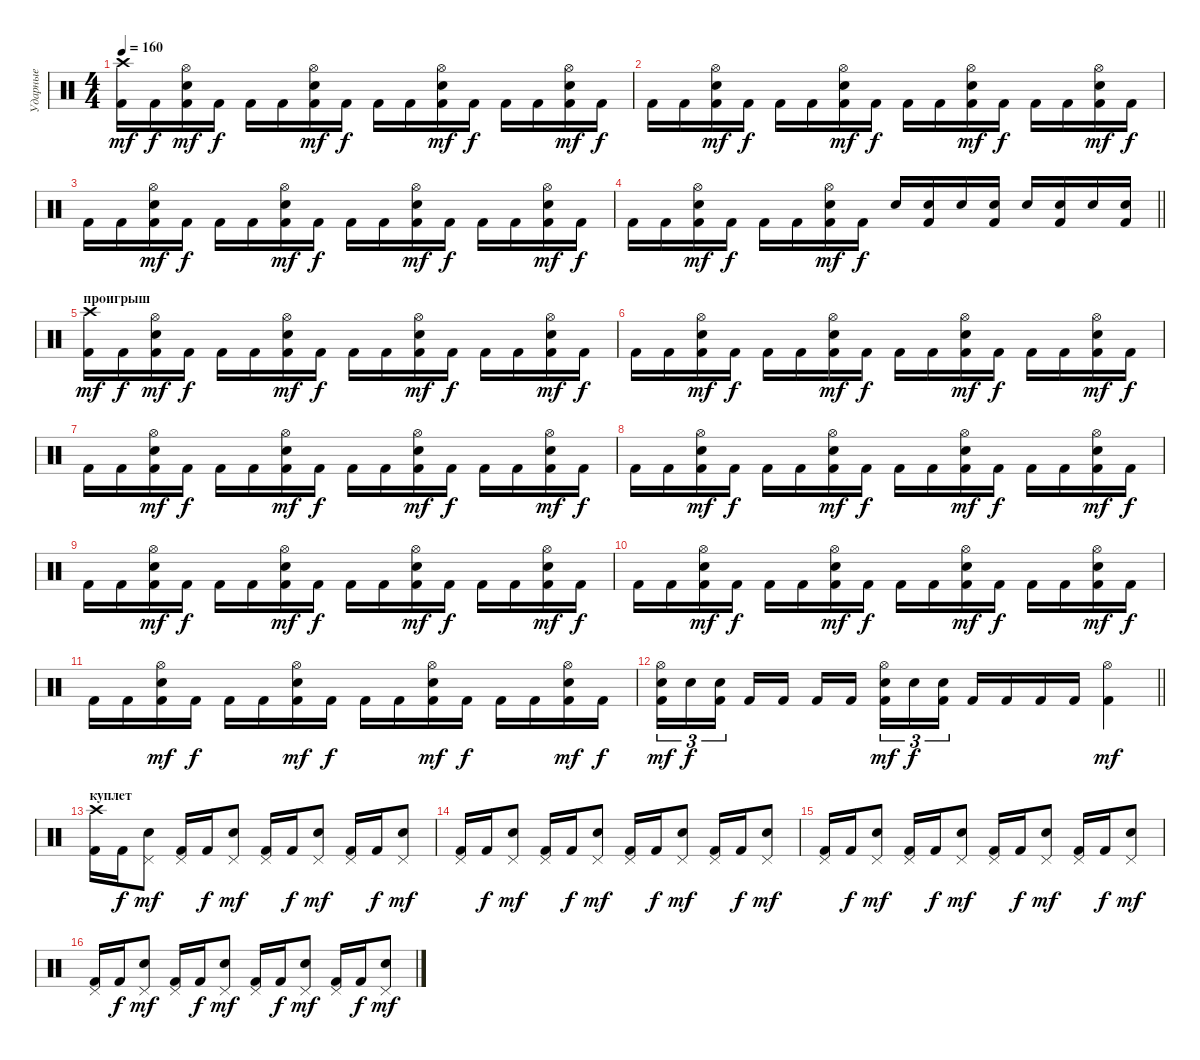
\track ("Ударные" "Ударные") {instrument percussion}
\staff {score}
\articulation defaults
\ts (4 4)
\tempo 160
\clef neutral
\ks c
("Kick (hit) 2" "Crash high (hit)").16{dy mf} "Kick (hit) 2".16{dy f} ("Kick (hit) 2" "Electric Snare (hit)" "Hi-Hat (open)").16{dy mf} "Kick (hit) 2".16{dy f} "Kick (hit) 2".16 "Kick (hit) 2".16 ("Kick (hit) 2" "Electric Snare (hit)" "Hi-Hat (open)").16{dy mf} "Kick (hit) 2".16{dy f} "Kick (hit) 2".16 "Kick (hit) 2".16 ("Kick (hit) 2" "Electric Snare (hit)" "Hi-Hat (open)").16{dy mf} "Kick (hit) 2".16{dy f} "Kick (hit) 2".16 "Kick (hit) 2".16 ("Kick (hit) 2" "Electric Snare (hit)" "Hi-Hat (open)").16{dy mf} "Kick (hit) 2".16{dy f} |
"Kick (hit) 2".16 "Kick (hit) 2".16 ("Kick (hit) 2" "Electric Snare (hit)" "Hi-Hat (open)").16{dy mf} "Kick (hit) 2".16{dy f} "Kick (hit) 2".16 "Kick (hit) 2".16 ("Kick (hit) 2" "Electric Snare (hit)" "Hi-Hat (open)").16{dy mf} "Kick (hit) 2".16{dy f} "Kick (hit) 2".16 "Kick (hit) 2".16 ("Kick (hit) 2" "Electric Snare (hit)" "Hi-Hat (open)").16{dy mf} "Kick (hit) 2".16{dy f} "Kick (hit) 2".16 "Kick (hit) 2".16 ("Kick (hit) 2" "Electric Snare (hit)" "Hi-Hat (open)").16{dy mf} "Kick (hit) 2".16{dy f} |
"Kick (hit) 2".16 "Kick (hit) 2".16 ("Kick (hit) 2" "Electric Snare (hit)" "Hi-Hat (open)").16{dy mf} "Kick (hit) 2".16{dy f} "Kick (hit) 2".16 "Kick (hit) 2".16 ("Kick (hit) 2" "Electric Snare (hit)" "Hi-Hat (open)").16{dy mf} "Kick (hit) 2".16{dy f} "Kick (hit) 2".16 "Kick (hit) 2".16 ("Kick (hit) 2" "Electric Snare (hit)" "Hi-Hat (open)").16{dy mf} "Kick (hit) 2".16{dy f} "Kick (hit) 2".16 "Kick (hit) 2".16 ("Kick (hit) 2" "Electric Snare (hit)" "Hi-Hat (open)").16{dy mf} "Kick (hit) 2".16{dy f} |
\barLineRight lightlight "Kick (hit) 2".16 "Kick (hit) 2".16
("Kick (hit) 2" "Electric Snare (hit)" "Hi-Hat (open)").16{dy mf} "Kick (hit) 2".16{dy f} "Kick (hit) 2".16 "Kick (hit) 2".16 ("Kick (hit) 2" "Electric Snare (hit)" "Hi-Hat (open)").16{dy mf} "Kick (hit) 2".16{dy f} "Electric Snare (hit)".16 ("Kick (hit) 2" "Electric Snare (hit)").16 "Electric Snare (hit)".16 ("Kick (hit) 2" "Electric Snare (hit)").16 "Electric Snare (hit)".16 ("Kick (hit) 2" "Electric Snare (hit)").16 "Electric Snare (hit)".16 ("Kick (hit) 2" "Electric Snare (hit)").16 |
\section ("" "проигрыш")
("Kick (hit) 2" "Crash high (hit)").16{dy mf} "Kick (hit) 2".16{dy f} ("Kick (hit) 2" "Electric Snare (hit)" "Hi-Hat (open)").16{dy mf} "Kick (hit) 2".16{dy f} "Kick (hit) 2".16 "Kick (hit) 2".16 ("Kick (hit) 2" "Electric Snare (hit)" "Hi-Hat (open)").16{dy mf} "Kick (hit) 2".16{dy f} "Kick (hit) 2".16 "Kick (hit) 2".16 ("Kick (hit) 2" "Electric Snare (hit)" "Hi-Hat (open)").16{dy mf} "Kick (hit) 2".16{dy f} "Kick (hit) 2".16 "Kick (hit) 2".16 ("Kick (hit) 2" "Electric Snare (hit)" "Hi-Hat (open)").16{dy mf} "Kick (hit) 2".16{dy f} |
"Kick (hit) 2".16 "Kick (hit) 2".16 ("Kick (hit) 2" "Electric Snare (hit)" "Hi-Hat (open)").16{dy mf} "Kick (hit) 2".16{dy f} "Kick (hit) 2".16 "Kick (hit) 2".16 ("Kick (hit) 2" "Electric Snare (hit)" "Hi-Hat (open)").16{dy mf} "Kick (hit) 2".16{dy f} "Kick (hit) 2".16 "Kick (hit) 2".16 ("Kick (hit) 2" "Electric Snare (hit)" "Hi-Hat (open)").16{dy mf} "Kick (hit) 2".16{dy f} "Kick (hit) 2".16 "Kick (hit) 2".16 ("Kick (hit) 2" "Electric Snare (hit)" "Hi-Hat (open)").16{dy mf} "Kick (hit) 2".16{dy f} |
"Kick (hit) 2".16 "Kick (hit) 2".16 ("Kick (hit) 2" "Electric Snare (hit)" "Hi-Hat (open)").16{dy mf} "Kick (hit) 2".16{dy f} "Kick (hit) 2".16 "Kick (hit) 2".16 ("Kick (hit) 2" "Electric Snare (hit)" "Hi-Hat (open)").16{dy mf} "Kick (hit) 2".16{dy f} "Kick (hit) 2".16 "Kick (hit) 2".16 ("Kick (hit) 2" "Electric Snare (hit)" "Hi-Hat (open)").16{dy mf} "Kick (hit) 2".16{dy f} "Kick (hit) 2".16 "Kick (hit) 2".16 ("Kick (hit) 2" "Electric Snare (hit)" "Hi-Hat (open)").16{dy mf} "Kick (hit) 2".16{dy f} |
"Kick (hit) 2".16 "Kick (hit) 2".16 ("Kick (hit) 2" "Electric Snare (hit)" "Hi-Hat (open)").16{dy mf} "Kick (hit) 2".16{dy f} "Kick (hit) 2".16 "Kick (hit) 2".16 ("Kick (hit) 2" "Electric Snare (hit)" "Hi-Hat (open)").16{dy mf} "Kick (hit) 2".16{dy f} "Kick (hit) 2".16 "Kick (hit) 2".16 ("Kick (hit) 2" "Electric Snare (hit)" "Hi-Hat (open)").16{dy mf} "Kick (hit) 2".16{dy f} "Kick (hit) 2".16 "Kick (hit) 2".16 ("Kick (hit) 2" "Electric Snare (hit)" "Hi-Hat (open)").16{dy mf} "Kick (hit) 2".16{dy f} |
"Kick (hit) 2".16 "Kick (hit) 2".16 ("Kick (hit) 2" "Electric Snare (hit)" "Hi-Hat (open)").16{dy mf} "Kick (hit) 2".16{dy f} "Kick (hit) 2".16 "Kick (hit) 2".16 ("Kick (hit) 2" "Electric Snare (hit)" "Hi-Hat (open)").16{dy mf} "Kick (hit) 2".16{dy f} "Kick (hit) 2".16 "Kick (hit) 2".16 ("Kick (hit) 2" "Electric Snare (hit)" "Hi-Hat (open)").16{dy mf} "Kick (hit) 2".16{dy f} "Kick (hit) 2".16 "Kick (hit) 2".16 ("Kick (hit) 2" "Electric Snare (hit)" "Hi-Hat (open)").16{dy mf} "Kick (hit) 2".16{dy f} |
"Kick (hit) 2".16 "Kick (hit) 2".16 ("Kick (hit) 2" "Electric Snare (hit)" "Hi-Hat (open)").16{dy mf} "Kick (hit) 2".16{dy f} "Kick (hit) 2".16 "Kick (hit) 2".16 ("Kick (hit) 2" "Electric Snare (hit)" "Hi-Hat (open)").16{dy mf} "Kick (hit) 2".16{dy f} "Kick (hit) 2".16 "Kick (hit) 2".16 ("Kick (hit) 2" "Electric Snare (hit)" "Hi-Hat (open)").16{dy mf} "Kick (hit) 2".16{dy f} "Kick (hit) 2".16 "Kick (hit) 2".16 ("Kick (hit) 2" "Electric Snare (hit)" "Hi-Hat (open)").16{dy mf} "Kick (hit) 2".16{dy f} |
"Kick (hit) 2".16 "Kick (hit) 2".16 ("Kick (hit) 2" "Electric Snare (hit)" "Hi-Hat (open)").16{dy mf} "Kick (hit) 2".16{dy f} "Kick (hit) 2".16 "Kick (hit) 2".16 ("Kick (hit) 2" "Electric Snare (hit)" "Hi-Hat (open)").16{dy mf} "Kick (hit) 2".16{dy f} "Kick (hit) 2".16 "Kick (hit) 2".16 ("Kick (hit) 2" "Electric Snare (hit)" "Hi-Hat (open)").16{dy mf} "Kick (hit) 2".16{dy f} "Kick (hit) 2".16 "Kick (hit) 2".16 ("Kick (hit) 2" "Electric Snare (hit)" "Hi-Hat (open)").16{dy mf} "Kick (hit) 2".16{dy f} |
\barLineRight lightlight
("Kick (hit) 2" "Electric Snare (hit)" "Hi-Hat (open)").16{tu (3 2) dy mf} "Electric Snare (hit)".16{tu (3 2) dy f} ("Kick (hit) 2" "Electric Snare (hit)").16{tu (3 2) beam splitsecondary} "Kick (hit) 2".16 "Kick (hit) 2".16 "Kick (hit) 2".16 "Kick (hit) 2".16{beam splitsecondary} ("Kick (hit) 2" "Electric Snare (hit)" "Hi-Hat (open)").16{tu (3 2) dy mf} "Electric Snare (hit)".16{tu (3 2) dy f} ("Kick (hit) 2" "Electric Snare (hit)").16{tu (3 2)} "Kick (hit) 2".16 "Kick (hit) 2".16 "Kick (hit) 2".16 "Kick (hit) 2".16 ("Kick (hit) 2" "Hi-Hat (open)").4{dy mf} |
\section ("" "куплет")
("Kick (hit) 2" "Crash high (hit)").16 "Kick (hit) 2".16{dy f} ("Electric Snare (hit)" "Pedal Hi-Hat (hit)").8{dy mf} ("Kick (hit) 2" "Pedal Hi-Hat (hit)").16 "Kick (hit) 2".16{dy f} ("Electric Snare (hit)" "Pedal Hi-Hat (hit)").8{dy mf} ("Kick (hit) 2" "Pedal Hi-Hat (hit)").16 "Kick (hit) 2".16{dy f} ("Electric Snare (hit)" "Pedal Hi-Hat (hit)").8{dy mf} ("Kick (hit) 2" "Pedal Hi-Hat (hit)").16 "Kick (hit) 2".16{dy f} ("Electric Snare (hit)" "Pedal Hi-Hat (hit)").8{dy mf} |
("Kick (hit) 2" "Pedal Hi-Hat (hit)").16 "Kick (hit) 2".16{dy f} ("Electric Snare (hit)" "Pedal Hi-Hat (hit)").8{dy mf} ("Kick (hit) 2" "Pedal Hi-Hat (hit)").16 "Kick (hit) 2".16{dy f} ("Electric Snare (hit)" "Pedal Hi-Hat (hit)").8{dy mf} ("Kick (hit) 2" "Pedal Hi-Hat (hit)").16 "Kick (hit) 2".16{dy f} ("Electric Snare (hit)" "Pedal Hi-Hat (hit)").8{dy mf} ("Kick (hit) 2" "Pedal Hi-Hat (hit)").16 "Kick (hit) 2".16{dy f} ("Electric Snare (hit)" "Pedal Hi-Hat (hit)").8{dy mf} |
("Kick (hit) 2" "Pedal Hi-Hat (hit)").16 "Kick (hit) 2".16{dy f} ("Electric Snare (hit)" "Pedal Hi-Hat (hit)").8{dy mf} ("Kick (hit) 2" "Pedal Hi-Hat (hit)").16 "Kick (hit) 2".16{dy f} ("Electric Snare (hit)" "Pedal Hi-Hat (hit)").8{dy mf} ("Kick (hit) 2" "Pedal Hi-Hat (hit)").16 "Kick (hit) 2".16{dy f} ("Electric Snare (hit)" "Pedal Hi-Hat (hit)").8{dy mf} ("Kick (hit) 2" "Pedal Hi-Hat (hit)").16 "Kick (hit) 2".16{dy f} ("Electric Snare (hit)" "Pedal Hi-Hat (hit)").8{dy mf} |
("Kick (hit) 2" "Pedal Hi-Hat (hit)").16 "Kick (hit) 2".16{dy f} ("Electric Snare (hit)" "Pedal Hi-Hat (hit)").8{dy mf} ("Kick (hit) 2" "Pedal Hi-Hat (hit)").16 "Kick (hit) 2".16{dy f} ("Electric Snare (hit)" "Pedal Hi-Hat (hit)").8{dy mf} ("Kick (hit) 2" "Pedal Hi-Hat (hit)").16 "Kick (hit) 2".16{dy f} ("Electric Snare (hit)" "Pedal Hi-Hat (hit)").8{dy mf} ("Kick (hit) 2" "Pedal Hi-Hat (hit)").16 "Kick (hit) 2".16{dy f} ("Electric Snare (hit)" "Pedal Hi-Hat (hit)").8{dy mf}
